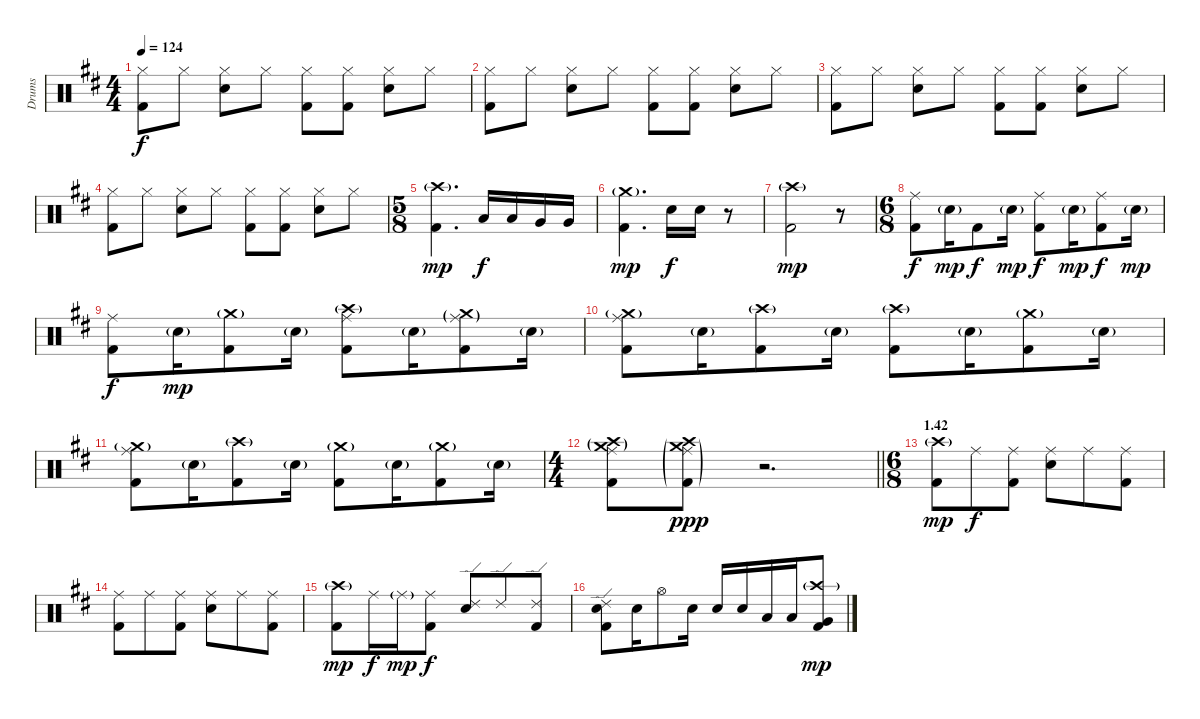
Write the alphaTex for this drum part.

\track ("Drums" "Drums") {instrument percussion}
\staff {score}
\articulation defaults
\ts (4 4)
\tempo 124
\clef neutral
\ks d
("Hi-Hat (closed)" "Kick (hit) 2").8{dy f} "Hi-Hat (closed)".8 ("Hi-Hat (closed)" "Electric Snare (hit)").8 "Hi-Hat (closed)".8 ("Hi-Hat (closed)" "Kick (hit) 2").8 ("Hi-Hat (closed)" "Kick (hit) 2").8 ("Hi-Hat (closed)" "Electric Snare (hit)").8 "Hi-Hat (closed)".8 |
("Hi-Hat (closed)" "Kick (hit) 2").8 "Hi-Hat (closed)".8 ("Hi-Hat (closed)" "Electric Snare (hit)").8 "Hi-Hat (closed)".8 ("Hi-Hat (closed)" "Kick (hit) 2").8 ("Hi-Hat (closed)" "Kick (hit) 2").8 ("Hi-Hat (closed)" "Electric Snare (hit)").8 "Hi-Hat (closed)".8 |
("Hi-Hat (closed)" "Kick (hit) 2").8 "Hi-Hat (closed)".8 ("Hi-Hat (closed)" "Electric Snare (hit)").8 "Hi-Hat (closed)".8 ("Hi-Hat (closed)" "Kick (hit) 2").8 ("Hi-Hat (closed)" "Kick (hit) 2").8 ("Hi-Hat (closed)" "Electric Snare (hit)").8 "Hi-Hat (closed)".8 |
("Hi-Hat (closed)" "Kick (hit) 2").8 "Hi-Hat (closed)".8 ("Hi-Hat (closed)" "Electric Snare (hit)").8 "Hi-Hat (closed)".8 ("Hi-Hat (closed)" "Kick (hit) 2").8 ("Hi-Hat (closed)" "Kick (hit) 2").8 ("Hi-Hat (closed)" "Electric Snare (hit)").8 "Hi-Hat (closed)".8 |
\ts (5 8)
("Crash high (hit)"{g} "Kick (hit) 2").4{d dy mp} "Low Tom (hit)".16{dy f} "Low Tom (hit)".16 "Very Low Tom (hit)".16 "Very Low Tom (hit)".16 |
("Crash medium (hit)"{g} "Kick (hit) 2").4{d dy mp} "Electric Snare (hit)".16{dy f} "Electric Snare (hit)".16 r.8 |
("Crash high (hit)"{g} "Kick (hit) 2").2{dy mp} r.8 |
\ts (6 8)
("Ride (middle)" "Kick (hit) 2").8{dy f} "Electric Snare (hit)"{g}.16{dy mp} "Kick (hit) 2".8{dy f} "Electric Snare (hit)"{g}.16{dy mp} ("Ride (middle)" "Kick (hit) 2").8{dy f} "Electric Snare (hit)"{g}.16{dy mp} ("Ride (middle)" "Kick (hit) 2").8{dy f} "Electric Snare (hit)"{g}.16{dy mp} |
("Ride (middle)" "Kick (hit) 2").8{dy f} "Electric Snare (hit)"{g}.16{dy mp} ("Crash medium (hit)"{g} "Kick (hit) 2").8 "Electric Snare (hit)"{g}.16 ("Ride (middle)" "Crash high (hit)"{g} "Kick (hit) 2").8 "Electric Snare (hit)"{g}.16 ("Ride (middle)"{g} "Crash medium (hit)"{g} "Kick (hit) 2").8 "Electric Snare (hit)"{g}.16 |
("Ride (middle)" "Crash medium (hit)"{g} "Kick (hit) 2").8 "Electric Snare (hit)"{g}.16 ("Crash high (hit)"{g} "Kick (hit) 2").8 "Electric Snare (hit)"{g}.16 ("Crash high (hit)"{g} "Kick (hit) 2").8 "Electric Snare (hit)"{g}.16 ("Crash medium (hit)"{g} "Kick (hit) 2").8 "Electric Snare (hit)"{g}.16 |
("Ride (middle)" "Crash medium (hit)"{g} "Kick (hit) 2").8 "Electric Snare (hit)"{g}.16 ("Crash high (hit)"{g} "Kick (hit) 2").8 "Electric Snare (hit)"{g}.16 ("Crash medium (hit)"{g} "Kick (hit) 2").8 "Electric Snare (hit)"{g}.16 ("Crash medium (hit)"{g} "Kick (hit) 2").8 "Electric Snare (hit)"{g}.16 |
\ts (4 4)
\barLineRight lightlight
("Crash high (hit)"{g} "Crash medium (hit)"{g} "Ride (middle)" "Kick (hit) 2").8 ("Crash high (hit)"{g} "Crash medium (hit)"{g} "Ride (middle)"{g} "Kick (hit) 2"{g}).8{dy ppp} r.2{d} |
\ts (6 8)
\section ("" "1.42")
("Crash high (hit)"{g} "Kick (hit) 2").8{dy mp} "Ride (middle)".8{dy f} ("Ride (middle)" "Kick (hit) 2").8 ("Ride (middle)" "Electric Snare (hit)").8 "Ride (middle)".8 ("Ride (middle)" "Kick (hit) 2").8 |
("Ride (middle)" "Kick (hit) 2").8 "Ride (middle)".8 ("Ride (middle)" "Kick (hit) 2").8 ("Ride (middle)" "Electric Snare (hit)").8 "Ride (middle)".8 ("Ride (middle)" "Kick (hit) 2").8 |
("Crash high (hit)"{g} "Kick (hit) 2").8{dy mp} "Ride (middle)".16{dy f} "Ride (middle)"{g}.16{dy mp} ("Ride (middle)" "Kick (hit) 2").8{dy f} ("Ride (edge) 2" "Electric Snare (hit)").8 "Ride (edge) 2".8 ("Ride (edge) 2" "Kick (hit) 2").8 |
("Ride (edge) 2" "Electric Snare (hit)" "Kick (hit) 2").8 "Electric Snare (hit)".16 "Hi-Hat (open)".8 "Electric Snare (hit)".16 "Electric Snare (hit)".16 "Electric Snare (hit)".16 "Low Tom (hit)".16 "Low Tom (hit)".16 ("Crash high (hit)"{g} "Very Low Tom (hit)" "Kick (hit) 2").8{dy mp}
